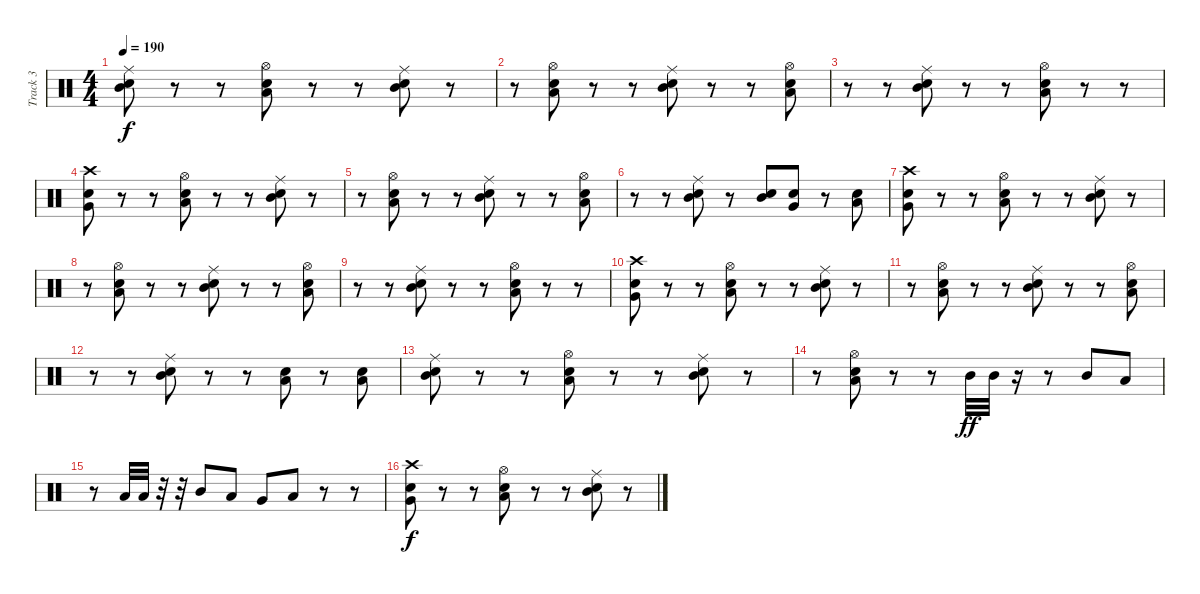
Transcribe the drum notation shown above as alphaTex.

\track ("Track 3" "Track 3") {instrument percussion}
\staff {score}
\articulation defaults
\ts (4 4)
\tempo 190
\clef neutral
\ks c
("Mid Tom (hit)" "Snare (hit) 2" "Ride (middle)").8{dy f} r.8 r.8 ("Low Tom (hit)" "Snare (hit) 2" "Hi-Hat (open)").8 r.8 r.8 ("Mid Tom (hit)" "Snare (hit) 2" "Ride (middle)").8 r.8 |
r.8 ("Low Tom (hit)" "Snare (hit) 2" "Hi-Hat (open)").8 r.8 r.8 ("Mid Tom (hit)" "Snare (hit) 2" "Ride (middle)").8 r.8 r.8 ("Low Tom (hit)" "Snare (hit) 2" "Hi-Hat (open)").8 |
r.8 r.8 ("Mid Tom (hit)" "Snare (hit) 2" "Ride (middle)").8 r.8 r.8 ("Low Tom (hit)" "Snare (hit) 2" "Hi-Hat (open)").8 r.8 r.8 |
("Very Low Tom (hit)" "Snare (hit) 2" "Crash high (hit)").8 r.8 r.8 ("Low Tom (hit)" "Snare (hit) 2" "Hi-Hat (open)").8 r.8 r.8 ("Mid Tom (hit)" "Snare (hit) 2" "Ride (middle)").8 r.8 |
r.8 ("Low Tom (hit)" "Snare (hit) 2" "Hi-Hat (open)").8 r.8 r.8 ("Mid Tom (hit)" "Snare (hit) 2" "Ride (middle)").8 r.8 r.8 ("Low Tom (hit)" "Snare (hit) 2" "Hi-Hat (open)").8 |
r.8 r.8 ("Mid Tom (hit)" "Snare (hit) 2" "Ride (middle)").8 r.8 ("Mid Tom (hit)" "Electric Snare (hit)").8 ("Very Low Tom (hit)" "Snare (hit) 2").8 r.8 ("Low Tom (hit)" "Snare (hit) 2").8 |
("Very Low Tom (hit)" "Snare (hit) 2" "Crash high (hit)").8 r.8 r.8 ("Low Tom (hit)" "Snare (hit) 2" "Hi-Hat (open)").8 r.8 r.8 ("Mid Tom (hit)" "Snare (hit) 2" "Ride (middle)").8 r.8 |
r.8 ("Low Tom (hit)" "Snare (hit) 2" "Hi-Hat (open)").8 r.8 r.8 ("Mid Tom (hit)" "Snare (hit) 2" "Ride (middle)").8 r.8 r.8 ("Low Tom (hit)" "Snare (hit) 2" "Hi-Hat (open)").8 |
r.8 r.8 ("Mid Tom (hit)" "Snare (hit) 2" "Ride (middle)").8 r.8 r.8 ("Low Tom (hit)" "Snare (hit) 2" "Hi-Hat (open)").8 r.8 r.8 |
("Very Low Tom (hit)" "Snare (hit) 2" "Crash high (hit)").8 r.8 r.8 ("Low Tom (hit)" "Snare (hit) 2" "Hi-Hat (open)").8 r.8 r.8 ("Mid Tom (hit)" "Snare (hit) 2" "Ride (middle)").8 r.8 |
r.8 ("Low Tom (hit)" "Snare (hit) 2" "Hi-Hat (open)").8 r.8 r.8 ("Mid Tom (hit)" "Snare (hit) 2" "Ride (middle)").8 r.8 r.8 ("Low Tom (hit)" "Snare (hit) 2" "Hi-Hat (open)").8 |
r.8 r.8 ("Mid Tom (hit)" "Snare (hit) 2" "Ride (middle)").8 r.8 r.8 ("Low Tom (hit)" "Snare (hit) 2").8 r.8 ("Electric Snare (hit)" "Low Tom (hit)").8 |
("Mid Tom (hit)" "Snare (hit) 2" "Ride (middle)").8 r.8 r.8 ("Low Tom (hit)" "Snare (hit) 2" "Hi-Hat (open)").8 r.8 r.8 ("Mid Tom (hit)" "Snare (hit) 2" "Ride (middle)").8 r.8 |
r.8 ("Low Tom (hit)" "Snare (hit) 2" "Hi-Hat (open)").8 r.8 r.8 "Mid Tom (hit)".32{dy ff} "Mid Tom (hit)".32 r.16 r.8 "Mid Tom (hit)".8 "Low Tom (hit)".8 |
r.8 "Low Tom (hit)".32 "Low Tom (hit)".32 r.32 r.32 "Mid Tom (hit)".8 "Low Tom (hit)".8 "Very Low Tom (hit)".8 "Low Tom (hit)".8 r.8 r.8 |
("Very Low Tom (hit)" "Snare (hit) 2" "Crash high (hit)").8{dy f} r.8 r.8 ("Low Tom (hit)" "Snare (hit) 2" "Hi-Hat (open)").8 r.8 r.8 ("Mid Tom (hit)" "Snare (hit) 2" "Ride (middle)").8 r.8
